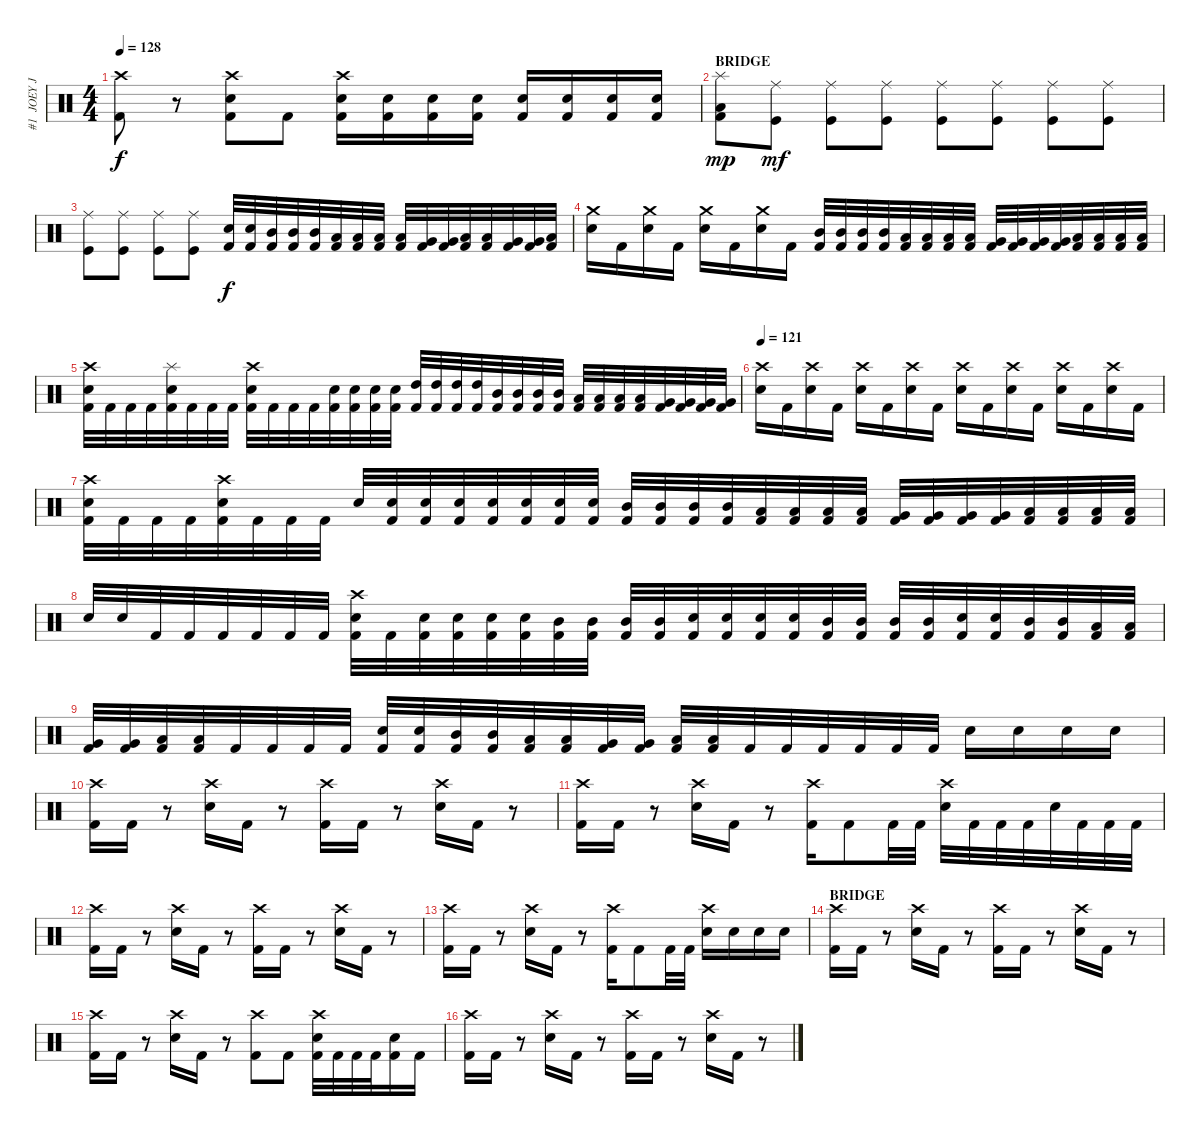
\track ("#1  JOEY JORDISON" "#1  JOEY J") {instrument percussion}
\staff {score}
\articulation defaults
\ts (4 4)
\tempo 128
\clef neutral
\ks c
("Crash high (hit)" "Kick (hit) 2").8{dy f} r.8 ("Crash high (hit)" "Electric Snare (hit)" "Kick (hit) 2").8 "Kick (hit) 2".8 ("Crash high (hit)" "Electric Snare (hit)" "Kick (hit) 2").16 ("Electric Snare (hit)" "Kick (hit) 2").16 ("Electric Snare (hit)" "Kick (hit) 2").16 ("Electric Snare (hit)" "Kick (hit) 2").16 ("Electric Snare (hit)" "Kick (hit) 2").16 ("Electric Snare (hit)" "Kick (hit) 2").16 ("Electric Snare (hit)" "Kick (hit) 2").16 ("Electric Snare (hit)" "Kick (hit) 2").16 |
\section ("" "BRIDGE")
("Splash (hit)" "Low Floor Tom (hit)" "Kick (hit) 2").8{dy mp} ("Ride (middle)" "Kick (hit)").8{dy mf} ("Ride (middle)" "Kick (hit)").8 ("Ride (middle)" "Kick (hit)").8 ("Ride (middle)" "Kick (hit)").8 ("Ride (middle)" "Kick (hit)").8 ("Ride (middle)" "Kick (hit)").8 ("Ride (middle)" "Kick (hit)").8 |
("Ride (middle)" "Kick (hit)").8 ("Ride (middle)" "Kick (hit)").8 ("Ride (middle)" "Kick (hit)").8 ("Ride (middle)" "Kick (hit)").8 ("Electric Snare (hit)" "Kick (hit) 2").32{dy f} ("Electric Snare (hit)" "Kick (hit) 2").32 ("Mid Tom (hit)" "Kick (hit) 2").32 ("Mid Tom (hit)" "Kick (hit) 2").32 ("Mid Tom (hit)" "Kick (hit) 2").32 ("Low Tom (hit)" "Kick (hit) 2").32 ("Low Tom (hit)" "Kick (hit) 2").32 ("Low Tom (hit)" "Kick (hit) 2").32 ("Low Tom (hit)" "Kick (hit) 2").32 ("Very Low Tom (hit)" "Kick (hit) 2").32 ("Very Low Tom (hit)" "Kick (hit) 2").32 ("Low Floor Tom (hit)" "Kick (hit) 2").32 ("Low Floor Tom (hit)" "Kick (hit) 2").32 ("Very Low Tom (hit)" "Kick (hit) 2").32 ("Very Low Tom (hit)" "Kick (hit) 2").32 ("Low Floor Tom (hit)" "Kick (hit) 2").32 |
("Crash medium (hit)" "Electric Snare (hit)").16 "Kick (hit) 2".16 ("Crash medium (hit)" "Electric Snare (hit)").16 "Kick (hit) 2".16 ("Crash medium (hit)" "Electric Snare (hit)").16 "Kick (hit) 2".16 ("Crash medium (hit)" "Electric Snare (hit)").16 "Kick (hit) 2".16 ("Mid Tom (hit)" "Kick (hit) 2").32 ("Mid Tom (hit)" "Kick (hit) 2").32 ("Mid Tom (hit)" "Kick (hit) 2").32 ("Mid Tom (hit)" "Kick (hit) 2").32 ("Low Tom (hit)" "Kick (hit) 2").32 ("Low Tom (hit)" "Kick (hit) 2").32 ("Low Tom (hit)" "Kick (hit) 2").32 ("Low Tom (hit)" "Kick (hit) 2").32 ("Very Low Tom (hit)" "Kick (hit) 2").32 ("Very Low Tom (hit)" "Kick (hit) 2").32 ("Very Low Tom (hit)" "Kick (hit) 2").32 ("Very Low Tom (hit)" "Kick (hit) 2").32 ("Low Floor Tom (hit)" "Kick (hit) 2").32 ("Low Floor Tom (hit)" "Kick (hit) 2").32 ("Low Floor Tom (hit)" "Kick (hit) 2").32 ("Low Floor Tom (hit)" "Kick (hit) 2").32 |
("Crash high (hit)" "Electric Snare (hit)" "Kick (hit) 2").32 "Kick (hit) 2".32 "Kick (hit) 2".32 "Kick (hit) 2".32 ("Splash (hit)" "Electric Snare (hit)" "Kick (hit) 2").32 "Kick (hit) 2".32 "Kick (hit) 2".32 "Kick (hit) 2".32 ("Crash high (hit)" "Electric Snare (hit)" "Kick (hit) 2").32 "Kick (hit) 2".32 "Kick (hit) 2".32 "Kick (hit) 2".32 ("Electric Snare (hit)" "Kick (hit) 2").32 ("Electric Snare (hit)" "Kick (hit) 2").32 ("Electric Snare (hit)" "Kick (hit) 2").32 ("Electric Snare (hit)" "Kick (hit) 2").32 ("High Tom (hit)" "Kick (hit) 2").32 ("High Tom (hit)" "Kick (hit) 2").32 ("High Tom (hit)" "Kick (hit) 2").32 ("High Tom (hit)" "Kick (hit) 2").32 ("Mid Tom (hit)" "Kick (hit) 2").32 ("Mid Tom (hit)" "Kick (hit) 2").32 ("Mid Tom (hit)" "Kick (hit) 2").32 ("Mid Tom (hit)" "Kick (hit) 2").32 ("Low Tom (hit)" "Kick (hit) 2").32 ("Low Tom (hit)" "Kick (hit) 2").32 ("Low Tom (hit)" "Kick (hit) 2").32 ("Low Tom (hit)" "Kick (hit) 2").32 ("Very Low Tom (hit)" "Kick (hit) 2").32 ("Very Low Tom (hit)" "Kick (hit) 2").32 ("Very Low Tom (hit)" "Kick (hit) 2").32 ("Very Low Tom (hit)" "Kick (hit) 2").32 |
\section ("" "")
\tempo 121
("Crash high (hit)" "Electric Snare (hit)").16 "Kick (hit) 2".16 ("Crash high (hit)" "Electric Snare (hit)").16 "Kick (hit) 2".16 ("Crash high (hit)" "Electric Snare (hit)").16 "Kick (hit) 2".16 ("Crash high (hit)" "Electric Snare (hit)").16 "Kick (hit) 2".16 ("Crash high (hit)" "Electric Snare (hit)").16 "Kick (hit) 2".16 ("Crash high (hit)" "Electric Snare (hit)").16 "Kick (hit) 2".16 ("Crash high (hit)" "Electric Snare (hit)").16 "Kick (hit) 2".16 ("Crash high (hit)" "Electric Snare (hit)").16 "Kick (hit) 2".16 |
("Crash high (hit)" "Electric Snare (hit)" "Kick (hit) 2").32 "Kick (hit) 2".32 "Kick (hit) 2".32 "Kick (hit) 2".32 ("Crash high (hit)" "Electric Snare (hit)" "Kick (hit) 2").32 "Kick (hit) 2".32 "Kick (hit) 2".32 "Kick (hit) 2".32 "Electric Snare (hit)".32 ("Electric Snare (hit)" "Kick (hit) 2").32 ("Electric Snare (hit)" "Kick (hit) 2").32 ("Electric Snare (hit)" "Kick (hit) 2").32 ("Electric Snare (hit)" "Kick (hit) 2").32 ("Electric Snare (hit)" "Kick (hit) 2").32 ("Electric Snare (hit)" "Kick (hit) 2").32 ("Electric Snare (hit)" "Kick (hit) 2").32 ("Mid Tom (hit)" "Kick (hit) 2").32 ("Mid Tom (hit)" "Kick (hit) 2").32 ("Mid Tom (hit)" "Kick (hit) 2").32 ("Mid Tom (hit)" "Kick (hit) 2").32 ("Low Tom (hit)" "Kick (hit) 2").32 ("Low Tom (hit)" "Kick (hit) 2").32 ("Low Tom (hit)" "Kick (hit) 2").32 ("Low Tom (hit)" "Kick (hit) 2").32 ("Very Low Tom (hit)" "Kick (hit) 2").32 ("Very Low Tom (hit)" "Kick (hit) 2").32 ("Very Low Tom (hit)" "Kick (hit) 2").32 ("Very Low Tom (hit)" "Kick (hit) 2").32 ("Low Floor Tom (hit)" "Kick (hit) 2").32 ("Low Floor Tom (hit)" "Kick (hit) 2").32 ("Low Floor Tom (hit)" "Kick (hit) 2").32 ("Low Floor Tom (hit)" "Kick (hit) 2").32 |
"Electric Snare (hit)".32 "Electric Snare (hit)".32 "Kick (hit) 2".32 "Kick (hit) 2".32 "Kick (hit) 2".32 "Kick (hit) 2".32 "Kick (hit) 2".32 "Kick (hit) 2".32 ("Crash high (hit)" "Electric Snare (hit)" "Kick (hit) 2").32 "Kick (hit) 2".32 ("Electric Snare (hit)" "Kick (hit) 2").32 ("Electric Snare (hit)" "Kick (hit) 2").32 ("Electric Snare (hit)" "Kick (hit) 2").32 ("Electric Snare (hit)" "Kick (hit) 2").32 ("Mid Tom (hit)" "Kick (hit) 2").32 ("Mid Tom (hit)" "Kick (hit) 2").32 ("Mid Tom (hit)" "Kick (hit) 2").32 ("Mid Tom (hit)" "Kick (hit) 2").32 ("Electric Snare (hit)" "Kick (hit) 2").32 ("Electric Snare (hit)" "Kick (hit) 2").32 ("Electric Snare (hit)" "Kick (hit) 2").32 ("Electric Snare (hit)" "Kick (hit) 2").32 ("Mid Tom (hit)" "Kick (hit) 2").32 ("Mid Tom (hit)" "Kick (hit) 2").32 ("Mid Tom (hit)" "Kick (hit) 2").32 ("Mid Tom (hit)" "Kick (hit) 2").32 ("Electric Snare (hit)" "Kick (hit) 2").32 ("Electric Snare (hit)" "Kick (hit) 2").32 ("Mid Tom (hit)" "Kick (hit) 2").32 ("Mid Tom (hit)" "Kick (hit) 2").32 ("Low Tom (hit)" "Kick (hit) 2").32 ("Low Tom (hit)" "Kick (hit) 2").32 |
("Very Low Tom (hit)" "Kick (hit) 2").32 ("Very Low Tom (hit)" "Kick (hit) 2").32 ("Low Floor Tom (hit)" "Kick (hit) 2").32 ("Low Floor Tom (hit)" "Kick (hit) 2").32 "Kick (hit) 2".32 "Kick (hit) 2".32 "Kick (hit) 2".32 "Kick (hit) 2".32 ("Electric Snare (hit)" "Kick (hit) 2").32 ("Electric Snare (hit)" "Kick (hit) 2").32 ("Mid Tom (hit)" "Kick (hit) 2").32 ("Mid Tom (hit)" "Kick (hit) 2").32 ("Low Tom (hit)" "Kick (hit) 2").32 ("Low Tom (hit)" "Kick (hit) 2").32 ("Very Low Tom (hit)" "Kick (hit) 2").32 ("Very Low Tom (hit)" "Kick (hit) 2").32 ("Low Floor Tom (hit)" "Kick (hit) 2").32 ("Low Floor Tom (hit)" "Kick (hit) 2").32 "Kick (hit) 2".32 "Kick (hit) 2".32 "Kick (hit) 2".32 "Kick (hit) 2".32 "Kick (hit) 2".32 "Kick (hit) 2".32 "Electric Snare (hit)".16 "Electric Snare (hit)".16 "Electric Snare (hit)".16 "Electric Snare (hit)".16 |
("Crash high (hit)" "Kick (hit) 2").16 "Kick (hit) 2".16 r.8 ("Crash high (hit)" "Electric Snare (hit)").16 "Kick (hit) 2".16 r.8 ("Crash high (hit)" "Kick (hit) 2").16 "Kick (hit) 2".16 r.8 ("Crash high (hit)" "Electric Snare (hit)").16 "Kick (hit) 2".16 r.8 |
("Crash high (hit)" "Kick (hit) 2").16 "Kick (hit) 2".16 r.8 ("Crash high (hit)" "Electric Snare (hit)").16 "Kick (hit) 2".16 r.8 ("Crash high (hit)" "Kick (hit) 2").16 "Kick (hit) 2".8 "Kick (hit) 2".32 "Kick (hit) 2".32 ("Crash high (hit)" "Electric Snare (hit)").32 "Kick (hit) 2".32 "Kick (hit) 2".32 "Kick (hit) 2".32 "Electric Snare (hit)".32 "Kick (hit) 2".32 "Kick (hit) 2".32 "Kick (hit) 2".32 |
("Crash high (hit)" "Kick (hit) 2").16 "Kick (hit) 2".16 r.8 ("Crash high (hit)" "Electric Snare (hit)").16 "Kick (hit) 2".16 r.8 ("Crash high (hit)" "Kick (hit) 2").16 "Kick (hit) 2".16 r.8 ("Crash high (hit)" "Electric Snare (hit)").16 "Kick (hit) 2".16 r.8 |
("Crash high (hit)" "Kick (hit) 2").16 "Kick (hit) 2".16 r.8 ("Crash high (hit)" "Electric Snare (hit)").16 "Kick (hit) 2".16 r.8 ("Crash high (hit)" "Kick (hit) 2").16 "Kick (hit) 2".8 "Kick (hit) 2".32 "Kick (hit) 2".32 ("Crash high (hit)" "Electric Snare (hit)").16 "Electric Snare (hit)".16 "Electric Snare (hit)".16 "Electric Snare (hit)".16 |
\section ("" "BRIDGE")
("Crash high (hit)" "Kick (hit) 2").16 "Kick (hit) 2".16 r.8 ("Crash high (hit)" "Electric Snare (hit)").16 "Kick (hit) 2".16 r.8 ("Crash high (hit)" "Kick (hit) 2").16 "Kick (hit) 2".16 r.8 ("Crash high (hit)" "Electric Snare (hit)").16 "Kick (hit) 2".16 r.8 |
("Crash high (hit)" "Kick (hit) 2").16 "Kick (hit) 2".16 r.8 ("Crash high (hit)" "Electric Snare (hit)").16 "Kick (hit) 2".16 r.8 ("Crash high (hit)" "Kick (hit) 2").8 "Kick (hit) 2".8 ("Crash high (hit)" "Electric Snare (hit)" "Kick (hit) 2").32 "Kick (hit) 2".32 "Kick (hit) 2".32 "Kick (hit) 2".32 ("Electric Snare (hit)" "Kick (hit) 2").16 "Kick (hit) 2".16 |
("Crash high (hit)" "Kick (hit) 2").16 "Kick (hit) 2".16 r.8 ("Crash high (hit)" "Electric Snare (hit)").16 "Kick (hit) 2".16 r.8 ("Crash high (hit)" "Kick (hit) 2").16 "Kick (hit) 2".16 r.8 ("Crash high (hit)" "Electric Snare (hit)").16 "Kick (hit) 2".16 r.8
